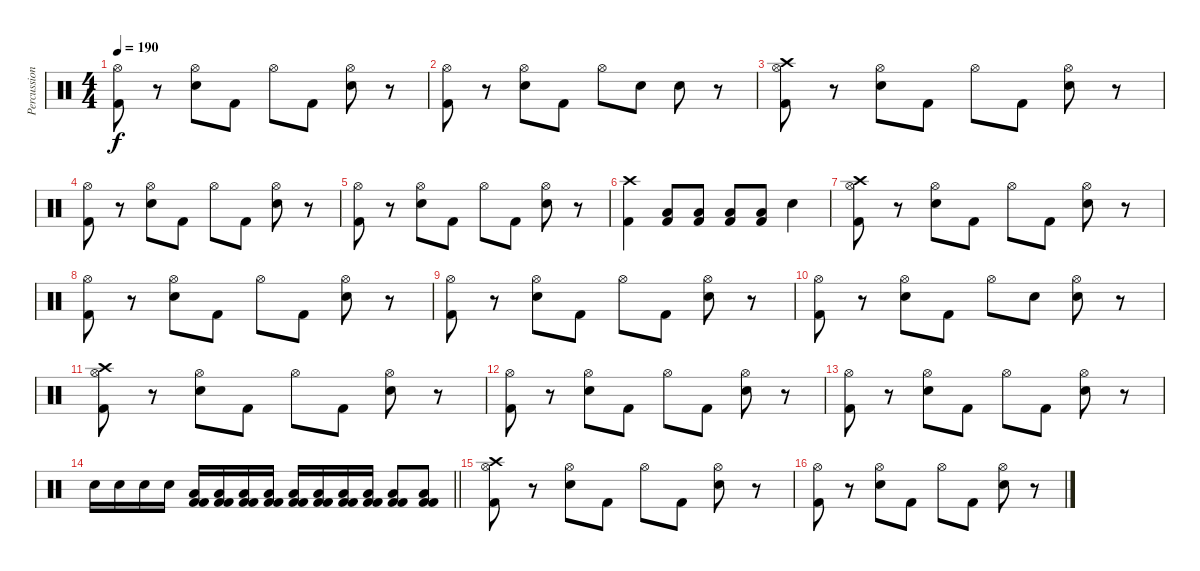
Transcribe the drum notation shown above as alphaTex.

\track ("Percussion" "Percussion") {instrument percussion}
\staff {score}
\articulation defaults
\ts (4 4)
\tempo 190
\clef neutral
\ks c
("Hi-Hat (open)" "Kick (hit) 2").8{dy f} r.8 ("Hi-Hat (open)" "Snare (hit) 2").8 "Kick (hit) 2".8 "Hi-Hat (open)".8 "Kick (hit) 2".8 ("Hi-Hat (open)" "Snare (hit) 2").8 r.8 |
("Hi-Hat (open)" "Kick (hit) 2").8 r.8 ("Hi-Hat (open)" "Snare (hit) 2").8 "Kick (hit) 2".8 "Hi-Hat (open)".8 "Snare (hit) 2".8 "Snare (hit) 2".8 r.8 |
("Hi-Hat (open)" "Crash high (hit)" "Kick (hit) 2").8 r.8 ("Hi-Hat (open)" "Snare (hit) 2").8 "Kick (hit) 2".8 "Hi-Hat (open)".8 "Kick (hit) 2".8 ("Hi-Hat (open)" "Snare (hit) 2").8 r.8 |
("Hi-Hat (open)" "Kick (hit) 2").8 r.8 ("Hi-Hat (open)" "Snare (hit) 2").8 "Kick (hit) 2".8 "Hi-Hat (open)".8 "Kick (hit) 2".8 ("Hi-Hat (open)" "Snare (hit) 2").8 r.8 |
("Hi-Hat (open)" "Kick (hit) 2").8 r.8 ("Hi-Hat (open)" "Snare (hit) 2").8 "Kick (hit) 2".8 "Hi-Hat (open)".8 "Kick (hit) 2".8 ("Hi-Hat (open)" "Snare (hit) 2").8 r.8 |
("Crash high (hit)" "Kick (hit) 2").4 ("Kick (hit) 2" "Low Tom (hit)").8 ("Kick (hit) 2" "Low Tom (hit)").8 ("Kick (hit) 2" "Low Tom (hit)").8 ("Kick (hit) 2" "Low Tom (hit)").8 "Snare (hit) 2".4 |
("Hi-Hat (open)" "Crash high (hit)" "Kick (hit) 2").8 r.8 ("Hi-Hat (open)" "Snare (hit) 2").8 "Kick (hit) 2".8 "Hi-Hat (open)".8 "Kick (hit) 2".8 ("Hi-Hat (open)" "Snare (hit) 2").8 r.8 |
("Hi-Hat (open)" "Kick (hit) 2").8 r.8 ("Hi-Hat (open)" "Snare (hit) 2").8 "Kick (hit) 2".8 "Hi-Hat (open)".8 "Kick (hit) 2".8 ("Hi-Hat (open)" "Snare (hit) 2").8 r.8 |
("Hi-Hat (open)" "Kick (hit) 2").8 r.8 ("Hi-Hat (open)" "Snare (hit) 2").8 "Kick (hit) 2".8 "Hi-Hat (open)".8 "Kick (hit) 2".8 ("Hi-Hat (open)" "Snare (hit) 2").8 r.8 |
("Hi-Hat (open)" "Kick (hit) 2").8 r.8 ("Hi-Hat (open)" "Snare (hit) 2").8 "Kick (hit) 2".8 "Hi-Hat (open)".8 "Snare (hit) 2".8 ("Hi-Hat (open)" "Snare (hit) 2").8 r.8 |
("Hi-Hat (open)" "Crash high (hit)" "Kick (hit) 2").8 r.8 ("Hi-Hat (open)" "Snare (hit) 2").8 "Kick (hit) 2".8 "Hi-Hat (open)".8 "Kick (hit) 2".8 ("Hi-Hat (open)" "Snare (hit) 2").8 r.8 |
("Hi-Hat (open)" "Kick (hit) 2").8 r.8 ("Hi-Hat (open)" "Snare (hit) 2").8 "Kick (hit) 2".8 "Hi-Hat (open)".8 "Kick (hit) 2".8 ("Hi-Hat (open)" "Snare (hit) 2").8 r.8 |
("Hi-Hat (open)" "Kick (hit) 2").8 r.8 ("Hi-Hat (open)" "Snare (hit) 2").8 "Kick (hit) 2".8 "Hi-Hat (open)".8 "Kick (hit) 2".8 ("Hi-Hat (open)" "Snare (hit) 2").8 r.8 |
\barLineRight lightlight "Snare (hit) 2".16 "Snare (hit) 2".16 "Snare (hit) 2".16 "Snare (hit) 2".16
("Low Tom (hit)" "Kick (hit) 2" "Kick (hit) 2").16 ("Low Tom (hit)" "Kick (hit) 2" "Kick (hit) 2").16 ("Low Tom (hit)" "Kick (hit) 2" "Kick (hit) 2").16 ("Low Tom (hit)" "Kick (hit) 2" "Kick (hit) 2").16 ("Low Tom (hit)" "Kick (hit) 2" "Kick (hit) 2").16 ("Low Tom (hit)" "Kick (hit) 2" "Kick (hit) 2").16 ("Low Tom (hit)" "Kick (hit) 2" "Kick (hit) 2").16 ("Low Tom (hit)" "Kick (hit) 2" "Kick (hit) 2").16 ("Low Tom (hit)" "Kick (hit) 2" "Kick (hit) 2").8 ("Low Tom (hit)" "Kick (hit) 2" "Kick (hit) 2").8 |
("Hi-Hat (open)" "Crash high (hit)" "Kick (hit) 2").8 r.8 ("Hi-Hat (open)" "Snare (hit) 2").8 "Kick (hit) 2".8 "Hi-Hat (open)".8 "Kick (hit) 2".8 ("Hi-Hat (open)" "Snare (hit) 2").8 r.8 |
("Hi-Hat (open)" "Kick (hit) 2").8 r.8 ("Hi-Hat (open)" "Snare (hit) 2").8 "Kick (hit) 2".8 "Hi-Hat (open)".8 "Kick (hit) 2".8 ("Hi-Hat (open)" "Snare (hit) 2").8 r.8
